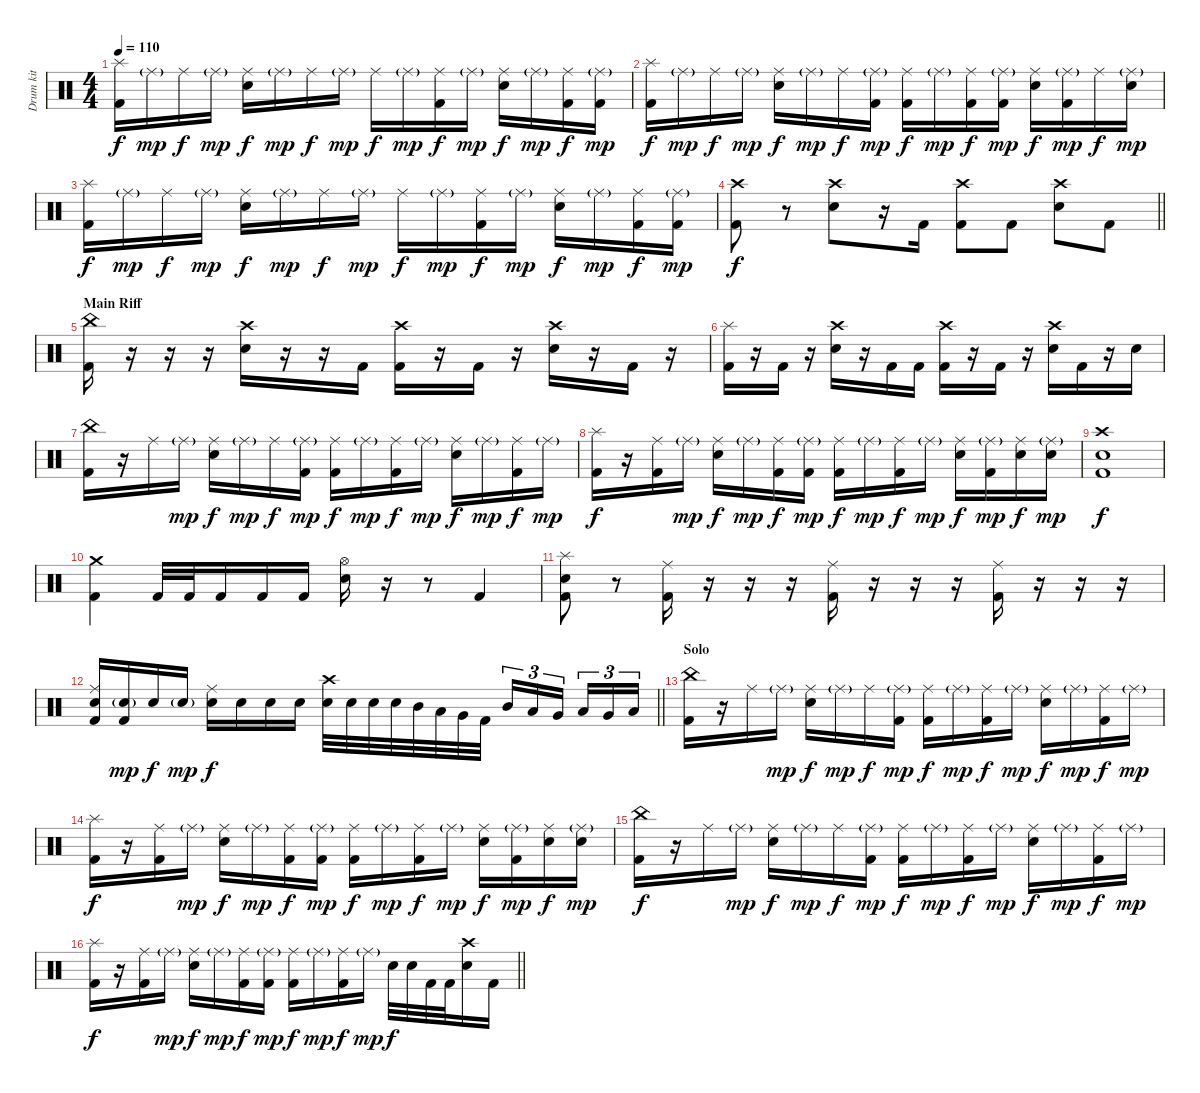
\track ("Drum kit" "Drum kit") {instrument percussion}
\staff {score}
\articulation defaults
\ts (4 4)
\tempo 110
\clef neutral
\ks c
("Splash (hit)" "Kick (hit) 2").16{dy f} "Ride (middle)"{g}.16{dy mp} "Ride (middle)".16{dy f} "Ride (middle)"{g}.16{dy mp} ("Ride (middle)" "Electric Snare (hit)").16{dy f} "Ride (middle)"{g}.16{dy mp} "Ride (middle)".16{dy f} "Ride (middle)"{g}.16{dy mp} "Ride (middle)".16{dy f} "Ride (middle)"{g}.16{dy mp} ("Ride (middle)" "Kick (hit) 2").16{dy f} "Ride (middle)"{g}.16{dy mp} ("Ride (middle)" "Electric Snare (hit)").16{dy f} "Ride (middle)"{g}.16{dy mp} ("Ride (middle)" "Kick (hit) 2").16{dy f} ("Ride (middle)"{g} "Kick (hit) 2").16{dy mp} |
("Splash (hit)" "Kick (hit) 2").16{dy f} "Ride (middle)"{g}.16{dy mp} "Ride (middle)".16{dy f} "Ride (middle)"{g}.16{dy mp} ("Ride (middle)" "Electric Snare (hit)").16{dy f} "Ride (middle)"{g}.16{dy mp} "Ride (middle)".16{dy f} ("Ride (middle)"{g} "Kick (hit) 2").16{dy mp} ("Ride (middle)" "Kick (hit) 2").16{dy f} "Ride (middle)"{g}.16{dy mp} ("Ride (middle)" "Kick (hit) 2").16{dy f} ("Ride (middle)"{g} "Kick (hit) 2").16{dy mp} ("Ride (middle)" "Electric Snare (hit)").16{dy f} ("Ride (middle)"{g} "Kick (hit) 2").16{dy mp} "Ride (middle)".16{dy f} ("Ride (middle)"{g} "Electric Snare (hit)").16{dy mp} |
("Splash (hit)" "Kick (hit) 2").16{dy f} "Ride (middle)"{g}.16{dy mp} "Ride (middle)".16{dy f} "Ride (middle)"{g}.16{dy mp} ("Ride (middle)" "Electric Snare (hit)").16{dy f} "Ride (middle)"{g}.16{dy mp} "Ride (middle)".16{dy f} "Ride (middle)"{g}.16{dy mp} "Ride (middle)".16{dy f} "Ride (middle)"{g}.16{dy mp} ("Ride (middle)" "Kick (hit) 2").16{dy f} "Ride (middle)"{g}.16{dy mp} ("Ride (middle)" "Electric Snare (hit)").16{dy f} "Ride (middle)"{g}.16{dy mp} ("Ride (middle)" "Kick (hit) 2").16{dy f} ("Ride (middle)"{g} "Kick (hit) 2").16{dy mp} |
\barLineRight lightlight
("Crash high (hit)" "Kick (hit) 2").8{dy f} r.8 ("Crash high (hit)" "Electric Snare (hit)").8 r.16 "Kick (hit) 2".16 ("Crash high (hit)" "Kick (hit) 2").8 "Kick (hit) 2".8 ("Crash high (hit)" "Electric Snare (hit)").8 "Kick (hit) 2".8 |
\section ("" "Main Riff")
("China (hit)" "Kick (hit) 2").16 r.16 r.16 r.16 ("Crash high (hit)" "Electric Snare (hit)").16 r.16 r.16 "Kick (hit) 2".16 ("Crash high (hit)" "Kick (hit) 2").16 r.16 "Kick (hit) 2".16 r.16 ("Crash high (hit)" "Electric Snare (hit)").16 r.16 "Kick (hit) 2".16 r.16 |
("Splash (hit)" "Kick (hit) 2").16 r.16 "Kick (hit) 2".16 r.16 ("Crash high (hit)" "Electric Snare (hit)").16 r.16 "Kick (hit) 2".16 "Kick (hit) 2".16 ("Crash high (hit)" "Kick (hit) 2").16 r.16 "Kick (hit) 2".16 r.16 ("Crash high (hit)" "Electric Snare (hit)").16 "Kick (hit) 2".16 r.16 "Electric Snare (hit)".16 |
("China (hit)" "Kick (hit) 2").16 r.16 "Ride (middle)".16 "Ride (middle)"{g}.16{dy mp} ("Ride (middle)" "Electric Snare (hit)").16{dy f} "Ride (middle)"{g}.16{dy mp} "Ride (middle)".16{dy f} ("Ride (middle)"{g} "Kick (hit) 2").16{dy mp} ("Ride (middle)" "Kick (hit) 2").16{dy f} "Ride (middle)"{g}.16{dy mp} ("Ride (middle)" "Kick (hit) 2").16{dy f} "Ride (middle)"{g}.16{dy mp} ("Ride (middle)" "Electric Snare (hit)").16{dy f} "Ride (middle)"{g}.16{dy mp} ("Ride (middle)" "Kick (hit) 2").16{dy f} "Ride (middle)"{g}.16{dy mp} |
("Splash (hit)" "Kick (hit) 2").16{dy f} r.16 ("Ride (middle)" "Kick (hit) 2").16 "Ride (middle)"{g}.16{dy mp} ("Ride (middle)" "Electric Snare (hit)").16{dy f} "Ride (middle)"{g}.16{dy mp} ("Ride (middle)" "Kick (hit) 2").16{dy f} ("Ride (middle)"{g} "Kick (hit) 2").16{dy mp} ("Ride (middle)" "Kick (hit) 2").16{dy f} "Ride (middle)"{g}.16{dy mp} ("Ride (middle)" "Kick (hit) 2").16{dy f} "Ride (middle)"{g}.16{dy mp} ("Ride (middle)" "Electric Snare (hit)").16{dy f} ("Ride (middle)"{g} "Kick (hit) 2").16{dy mp} ("Ride (middle)" "Electric Snare (hit)").16{dy f} ("Ride (middle)"{g} "Electric Snare (hit)").16{dy mp} |
("Crash high (hit)" "Electric Snare (hit)" "Kick (hit) 2").1{dy f} |
("Crash medium (hit)" "Kick (hit) 2").4 "Kick (hit) 2".32 "Kick (hit) 2".32 "Kick (hit) 2".16 "Kick (hit) 2".16 "Kick (hit) 2".16 ("Hi-Hat (open)" "Electric Snare (hit)").16 r.16 r.8 "Kick (hit) 2".4 |
("Splash (hit)" "Electric Snare (hit)" "Kick (hit) 2").8 r.8 ("Ride (middle)" "Kick (hit) 2").16 r.16 r.16 r.16 ("Ride (middle)" "Kick (hit) 2").16 r.16 r.16 r.16 ("Ride (middle)" "Kick (hit) 2").16 r.16 r.16 r.16 |
\barLineRight lightlight
("Ride (middle)" "Electric Snare (hit)" "Kick (hit) 2").16 ("Electric Snare (hit)"{g} "Kick (hit) 2").16{dy mp} "Electric Snare (hit)".16{dy f} "Electric Snare (hit)"{g}.16{dy mp} ("Ride (middle)" "Electric Snare (hit)").16{dy f} "Electric Snare (hit)".16 "Electric Snare (hit)".16 "Electric Snare (hit)".16 ("Crash high (hit)" "Electric Snare (hit)").32 "Electric Snare (hit)".32 "Electric Snare (hit)".32 "Electric Snare (hit)".32 "Mid Tom (hit)".32 "Low Tom (hit)".32 "Very Low Tom (hit)".32 "Kick (hit) 2".32 "Mid Tom (hit)".16{tu (3 2)} "Low Tom (hit)".16{tu (3 2)} "Very Low Tom (hit)".16{tu (3 2) beam splitsecondary} "Low Tom (hit)".16{tu (3 2)} "Very Low Tom (hit)".16{tu (3 2)} "Low Floor Tom (hit)".16{tu (3 2)} |
\section ("" "Solo")
("China (hit)" "Kick (hit) 2").16 r.16 "Ride (middle)".16 "Ride (middle)"{g}.16{dy mp} ("Ride (middle)" "Electric Snare (hit)").16{dy f} "Ride (middle)"{g}.16{dy mp} "Ride (middle)".16{dy f} ("Ride (middle)"{g} "Kick (hit) 2").16{dy mp} ("Ride (middle)" "Kick (hit) 2").16{dy f} "Ride (middle)"{g}.16{dy mp} ("Ride (middle)" "Kick (hit) 2").16{dy f} "Ride (middle)"{g}.16{dy mp} ("Ride (middle)" "Electric Snare (hit)").16{dy f} "Ride (middle)"{g}.16{dy mp} ("Ride (middle)" "Kick (hit) 2").16{dy f} "Ride (middle)"{g}.16{dy mp} |
("Splash (hit)" "Kick (hit) 2").16{dy f} r.16 ("Ride (middle)" "Kick (hit) 2").16 "Ride (middle)"{g}.16{dy mp} ("Ride (middle)" "Electric Snare (hit)").16{dy f} "Ride (middle)"{g}.16{dy mp} ("Ride (middle)" "Kick (hit) 2").16{dy f} ("Ride (middle)"{g} "Kick (hit) 2").16{dy mp} ("Ride (middle)" "Kick (hit) 2").16{dy f} "Ride (middle)"{g}.16{dy mp} ("Ride (middle)" "Kick (hit) 2").16{dy f} "Ride (middle)"{g}.16{dy mp} ("Ride (middle)" "Electric Snare (hit)").16{dy f} ("Ride (middle)"{g} "Kick (hit) 2").16{dy mp} ("Ride (middle)" "Electric Snare (hit)").16{dy f} ("Ride (middle)"{g} "Electric Snare (hit)").16{dy mp} |
("China (hit)" "Kick (hit) 2").16{dy f} r.16 "Ride (middle)".16 "Ride (middle)"{g}.16{dy mp} ("Ride (middle)" "Electric Snare (hit)").16{dy f} "Ride (middle)"{g}.16{dy mp} "Ride (middle)".16{dy f} ("Ride (middle)"{g} "Kick (hit) 2").16{dy mp} ("Ride (middle)" "Kick (hit) 2").16{dy f} "Ride (middle)"{g}.16{dy mp} ("Ride (middle)" "Kick (hit) 2").16{dy f} "Ride (middle)"{g}.16{dy mp} ("Ride (middle)" "Electric Snare (hit)").16{dy f} "Ride (middle)"{g}.16{dy mp} ("Ride (middle)" "Kick (hit) 2").16{dy f} "Ride (middle)"{g}.16{dy mp} |
\barLineRight lightlight
("Splash (hit)" "Kick (hit) 2").16{dy f} r.16 ("Ride (middle)" "Kick (hit) 2").16 "Ride (middle)"{g}.16{dy mp} ("Ride (middle)" "Electric Snare (hit)").16{dy f} "Ride (middle)"{g}.16{dy mp} ("Ride (middle)" "Kick (hit) 2").16{dy f} ("Ride (middle)"{g} "Kick (hit) 2").16{dy mp} ("Ride (middle)" "Kick (hit) 2").16{dy f} "Ride (middle)"{g}.16{dy mp} ("Ride (middle)" "Kick (hit) 2").16{dy f} "Ride (middle)"{g}.16{dy mp} "Electric Snare (hit)".32{dy f} "Electric Snare (hit)".32 "Kick (hit) 2".32 "Kick (hit) 2".32 ("Crash high (hit)" "Electric Snare (hit)").16 "Kick (hit) 2".16
